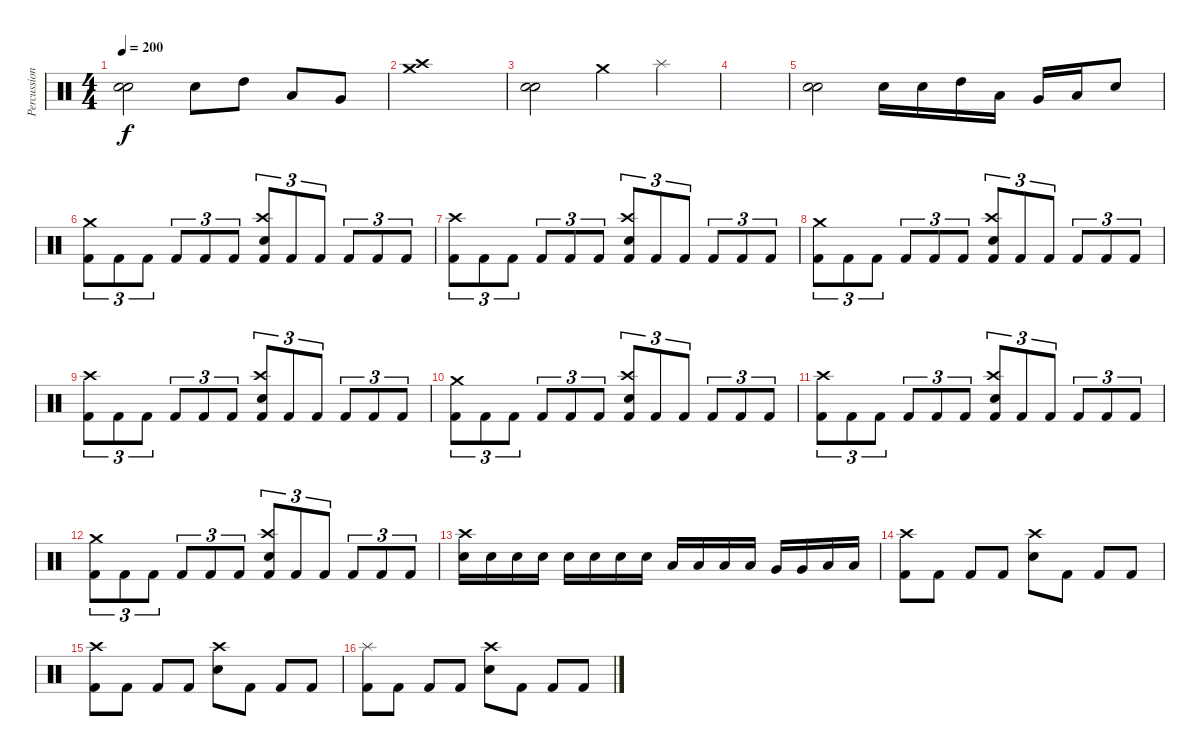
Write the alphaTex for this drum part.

\track ("Percussions" "Percussion") {instrument percussion}
\staff {score}
\articulation defaults
\ts (4 4)
\tempo 200
\clef neutral
\ks c
("Electric Snare (hit)" "Electric Snare (hit)").2{dy f} "Electric Snare (hit)".8 "High Tom (hit)".8 "Low Tom (hit)".8 "Very Low Tom (hit)".8 |
("Crash high (hit)" "Crash medium (hit)").1 |
("Electric Snare (hit)" "Electric Snare (hit)").2 "Crash medium (hit)".4 "Splash (hit)".4 |
|
("Electric Snare (hit)" "Electric Snare (hit)").2 "Electric Snare (hit)".16 "Electric Snare (hit)".16 "High Tom (hit)".16 "Low Tom (hit)".16 "Very Low Tom (hit)".16 "Low Tom (hit)".16 "Electric Snare (hit)".8 |
("Crash medium (hit)" "Kick (hit) 2").8{tu (3 2)} "Kick (hit) 2".8{tu (3 2)} "Kick (hit) 2".8{tu (3 2)} "Kick (hit) 2".8{tu (3 2)} "Kick (hit) 2".8{tu (3 2)} "Kick (hit) 2".8{tu (3 2)} ("Crash high (hit)" "Electric Snare (hit)" "Kick (hit) 2").8{tu (3 2)} "Kick (hit) 2".8{tu (3 2)} "Kick (hit) 2".8{tu (3 2)} "Kick (hit) 2".8{tu (3 2)} "Kick (hit) 2".8{tu (3 2)} "Kick (hit) 2".8{tu (3 2)} |
("Crash high (hit)" "Kick (hit) 2").8{tu (3 2)} "Kick (hit) 2".8{tu (3 2)} "Kick (hit) 2".8{tu (3 2)} "Kick (hit) 2".8{tu (3 2)} "Kick (hit) 2".8{tu (3 2)} "Kick (hit) 2".8{tu (3 2)} ("Crash high (hit)" "Electric Snare (hit)" "Kick (hit) 2").8{tu (3 2)} "Kick (hit) 2".8{tu (3 2)} "Kick (hit) 2".8{tu (3 2)} "Kick (hit) 2".8{tu (3 2)} "Kick (hit) 2".8{tu (3 2)} "Kick (hit) 2".8{tu (3 2)} |
("Crash medium (hit)" "Kick (hit) 2").8{tu (3 2)} "Kick (hit) 2".8{tu (3 2)} "Kick (hit) 2".8{tu (3 2)} "Kick (hit) 2".8{tu (3 2)} "Kick (hit) 2".8{tu (3 2)} "Kick (hit) 2".8{tu (3 2)} ("Crash high (hit)" "Electric Snare (hit)" "Kick (hit) 2").8{tu (3 2)} "Kick (hit) 2".8{tu (3 2)} "Kick (hit) 2".8{tu (3 2)} "Kick (hit) 2".8{tu (3 2)} "Kick (hit) 2".8{tu (3 2)} "Kick (hit) 2".8{tu (3 2)} |
("Crash high (hit)" "Kick (hit) 2").8{tu (3 2)} "Kick (hit) 2".8{tu (3 2)} "Kick (hit) 2".8{tu (3 2)} "Kick (hit) 2".8{tu (3 2)} "Kick (hit) 2".8{tu (3 2)} "Kick (hit) 2".8{tu (3 2)} ("Crash high (hit)" "Electric Snare (hit)" "Kick (hit) 2").8{tu (3 2)} "Kick (hit) 2".8{tu (3 2)} "Kick (hit) 2".8{tu (3 2)} "Kick (hit) 2".8{tu (3 2)} "Kick (hit) 2".8{tu (3 2)} "Kick (hit) 2".8{tu (3 2)} |
("Crash medium (hit)" "Kick (hit) 2").8{tu (3 2)} "Kick (hit) 2".8{tu (3 2)} "Kick (hit) 2".8{tu (3 2)} "Kick (hit) 2".8{tu (3 2)} "Kick (hit) 2".8{tu (3 2)} "Kick (hit) 2".8{tu (3 2)} ("Crash high (hit)" "Electric Snare (hit)" "Kick (hit) 2").8{tu (3 2)} "Kick (hit) 2".8{tu (3 2)} "Kick (hit) 2".8{tu (3 2)} "Kick (hit) 2".8{tu (3 2)} "Kick (hit) 2".8{tu (3 2)} "Kick (hit) 2".8{tu (3 2)} |
("Crash high (hit)" "Kick (hit) 2").8{tu (3 2)} "Kick (hit) 2".8{tu (3 2)} "Kick (hit) 2".8{tu (3 2)} "Kick (hit) 2".8{tu (3 2)} "Kick (hit) 2".8{tu (3 2)} "Kick (hit) 2".8{tu (3 2)} ("Crash high (hit)" "Electric Snare (hit)" "Kick (hit) 2").8{tu (3 2)} "Kick (hit) 2".8{tu (3 2)} "Kick (hit) 2".8{tu (3 2)} "Kick (hit) 2".8{tu (3 2)} "Kick (hit) 2".8{tu (3 2)} "Kick (hit) 2".8{tu (3 2)} |
("Crash medium (hit)" "Kick (hit) 2").8{tu (3 2)} "Kick (hit) 2".8{tu (3 2)} "Kick (hit) 2".8{tu (3 2)} "Kick (hit) 2".8{tu (3 2)} "Kick (hit) 2".8{tu (3 2)} "Kick (hit) 2".8{tu (3 2)} ("Crash high (hit)" "Electric Snare (hit)" "Kick (hit) 2").8{tu (3 2)} "Kick (hit) 2".8{tu (3 2)} "Kick (hit) 2".8{tu (3 2)} "Kick (hit) 2".8{tu (3 2)} "Kick (hit) 2".8{tu (3 2)} "Kick (hit) 2".8{tu (3 2)} |
("Crash high (hit)" "Electric Snare (hit)").16 "Electric Snare (hit)".16 "Electric Snare (hit)".16 "Electric Snare (hit)".16 "Electric Snare (hit)".16 "Electric Snare (hit)".16 "Electric Snare (hit)".16 "Electric Snare (hit)".16 "Low Tom (hit)".16 "Low Tom (hit)".16 "Low Tom (hit)".16 "Low Tom (hit)".16 "Very Low Tom (hit)".16 "Very Low Tom (hit)".16 "Low Floor Tom (hit)".16 "Low Floor Tom (hit)".16 |
("Crash high (hit)" "Kick (hit) 2").8 "Kick (hit) 2".8 "Kick (hit) 2".8 "Kick (hit) 2".8 ("Crash high (hit)" "Electric Snare (hit)").8 "Kick (hit) 2".8 "Kick (hit) 2".8 "Kick (hit) 2".8 |
("Crash high (hit)" "Kick (hit) 2").8 "Kick (hit) 2".8 "Kick (hit) 2".8 "Kick (hit) 2".8 ("Crash high (hit)" "Electric Snare (hit)").8 "Kick (hit) 2".8 "Kick (hit) 2".8 "Kick (hit) 2".8 |
("Splash (hit)" "Kick (hit) 2").8 "Kick (hit) 2".8 "Kick (hit) 2".8 "Kick (hit) 2".8 ("Crash high (hit)" "Electric Snare (hit)").8 "Kick (hit) 2".8 "Kick (hit) 2".8 "Kick (hit) 2".8
